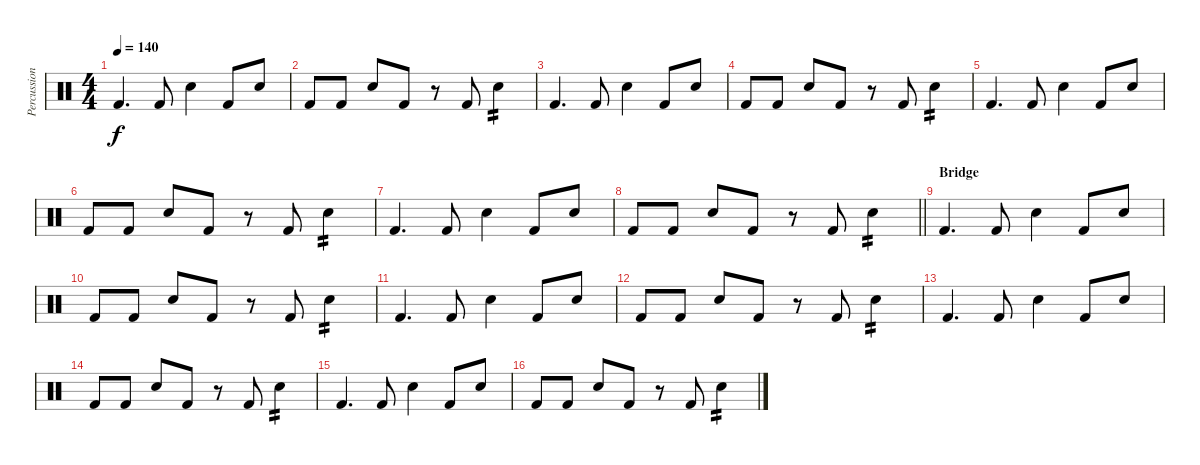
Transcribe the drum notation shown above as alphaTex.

\track ("Percussion" "Percussion") {instrument percussion}
\staff {score}
\articulation defaults
\ts (4 4)
\tempo 140
\clef neutral
\ks c "Kick (hit) 2".4{d dy f} "Kick (hit) 2".8 "Electric Snare (hit)".4 "Kick (hit) 2".8 "Electric Snare (hit)".8
|
"Kick (hit) 2".8 "Kick (hit) 2".8 "Electric Snare (hit)".8 "Kick (hit) 2".8 r.8 "Kick (hit) 2".8 "Electric Snare (hit)".4{tp 2} |
"Kick (hit) 2".4{d} "Kick (hit) 2".8 "Electric Snare (hit)".4 "Kick (hit) 2".8 "Electric Snare (hit)".8 |
"Kick (hit) 2".8 "Kick (hit) 2".8 "Electric Snare (hit)".8 "Kick (hit) 2".8 r.8 "Kick (hit) 2".8 "Electric Snare (hit)".4{tp 2} |
"Kick (hit) 2".4{d} "Kick (hit) 2".8 "Electric Snare (hit)".4 "Kick (hit) 2".8 "Electric Snare (hit)".8 |
"Kick (hit) 2".8 "Kick (hit) 2".8 "Electric Snare (hit)".8 "Kick (hit) 2".8 r.8 "Kick (hit) 2".8 "Electric Snare (hit)".4{tp 2} |
"Kick (hit) 2".4{d} "Kick (hit) 2".8 "Electric Snare (hit)".4 "Kick (hit) 2".8 "Electric Snare (hit)".8 |
\barLineRight lightlight "Kick (hit) 2".8 "Kick (hit) 2".8 "Electric Snare (hit)".8 "Kick (hit) 2".8
r.8 "Kick (hit) 2".8 "Electric Snare (hit)".4{tp 2} |
\section ("" "Bridge")
"Kick (hit) 2".4{d} "Kick (hit) 2".8 "Electric Snare (hit)".4 "Kick (hit) 2".8 "Electric Snare (hit)".8 |
"Kick (hit) 2".8 "Kick (hit) 2".8 "Electric Snare (hit)".8 "Kick (hit) 2".8 r.8 "Kick (hit) 2".8 "Electric Snare (hit)".4{tp 2} |
"Kick (hit) 2".4{d} "Kick (hit) 2".8 "Electric Snare (hit)".4 "Kick (hit) 2".8 "Electric Snare (hit)".8 |
"Kick (hit) 2".8 "Kick (hit) 2".8 "Electric Snare (hit)".8 "Kick (hit) 2".8 r.8 "Kick (hit) 2".8 "Electric Snare (hit)".4{tp 2} |
"Kick (hit) 2".4{d} "Kick (hit) 2".8 "Electric Snare (hit)".4 "Kick (hit) 2".8 "Electric Snare (hit)".8 |
"Kick (hit) 2".8 "Kick (hit) 2".8 "Electric Snare (hit)".8 "Kick (hit) 2".8 r.8 "Kick (hit) 2".8 "Electric Snare (hit)".4{tp 2} |
"Kick (hit) 2".4{d} "Kick (hit) 2".8 "Electric Snare (hit)".4 "Kick (hit) 2".8 "Electric Snare (hit)".8 |
"Kick (hit) 2".8 "Kick (hit) 2".8 "Electric Snare (hit)".8 "Kick (hit) 2".8 r.8 "Kick (hit) 2".8 "Electric Snare (hit)".4{tp 2}
